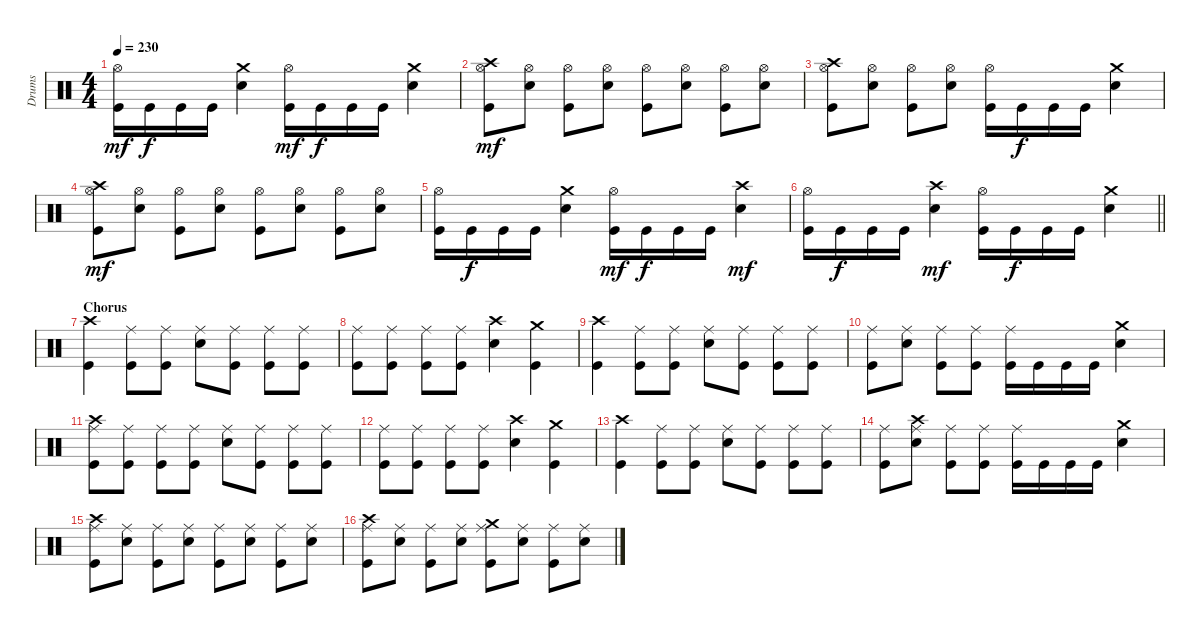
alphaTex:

\track ("Drums" "Drums") {instrument percussion}
\staff {score}
\articulation defaults
\ts (4 4)
\tempo 230
\clef neutral
\ks c
("Hi-Hat (open)" "Kick (hit)").16{dy mf} "Kick (hit)".16{dy f} "Kick (hit)".16 "Kick (hit)".16 ("Crash medium (hit)" "Electric Snare (hit)").4 ("Hi-Hat (open)" "Kick (hit)").16{dy mf} "Kick (hit)".16{dy f} "Kick (hit)".16 "Kick (hit)".16 ("Crash medium (hit)" "Electric Snare (hit)").4 |
("Crash high (hit)" "Hi-Hat (open)" "Kick (hit)").8{dy mf} ("Hi-Hat (open)" "Electric Snare (hit)").8 ("Hi-Hat (open)" "Kick (hit)").8 ("Hi-Hat (open)" "Electric Snare (hit)").8 ("Hi-Hat (open)" "Kick (hit)").8 ("Hi-Hat (open)" "Electric Snare (hit)").8 ("Hi-Hat (open)" "Kick (hit)").8 ("Hi-Hat (open)" "Electric Snare (hit)").8 |
("Crash high (hit)" "Hi-Hat (open)" "Kick (hit)").8 ("Hi-Hat (open)" "Electric Snare (hit)").8 ("Hi-Hat (open)" "Kick (hit)").8 ("Hi-Hat (open)" "Electric Snare (hit)").8 ("Hi-Hat (open)" "Kick (hit)").16 "Kick (hit)".16{dy f} "Kick (hit)".16 "Kick (hit)".16 ("Crash medium (hit)" "Electric Snare (hit)").4 |
("Crash high (hit)" "Hi-Hat (open)" "Kick (hit)").8{dy mf} ("Hi-Hat (open)" "Electric Snare (hit)").8 ("Hi-Hat (open)" "Kick (hit)").8 ("Hi-Hat (open)" "Electric Snare (hit)").8 ("Hi-Hat (open)" "Kick (hit)").8 ("Hi-Hat (open)" "Electric Snare (hit)").8 ("Hi-Hat (open)" "Kick (hit)").8 ("Hi-Hat (open)" "Electric Snare (hit)").8 |
("Hi-Hat (open)" "Kick (hit)").16 "Kick (hit)".16{dy f} "Kick (hit)".16 "Kick (hit)".16 ("Crash medium (hit)" "Electric Snare (hit)").4 ("Hi-Hat (open)" "Kick (hit)").16{dy mf} "Kick (hit)".16{dy f} "Kick (hit)".16 "Kick (hit)".16 ("Crash high (hit)" "Electric Snare (hit)").4{dy mf} |
\barLineRight lightlight
("Hi-Hat (open)" "Kick (hit)").16 "Kick (hit)".16{dy f} "Kick (hit)".16 "Kick (hit)".16 ("Crash high (hit)" "Electric Snare (hit)").4{dy mf} ("Hi-Hat (open)" "Kick (hit)").16 "Kick (hit)".16{dy f} "Kick (hit)".16 "Kick (hit)".16 ("Crash medium (hit)" "Electric Snare (hit)").4 |
\section ("" "Chorus")
("Crash high (hit)" "Kick (hit)").4 ("Ride (middle)" "Kick (hit)").8 ("Ride (middle)" "Kick (hit)").8 ("Ride (middle)" "Electric Snare (hit)").8 ("Ride (middle)" "Kick (hit)").8 ("Ride (middle)" "Kick (hit)").8 ("Ride (middle)" "Kick (hit)").8 |
("Ride (middle)" "Kick (hit)").8 ("Ride (middle)" "Kick (hit)").8 ("Ride (middle)" "Kick (hit)").8 ("Ride (middle)" "Kick (hit)").8 ("Crash high (hit)" "Electric Snare (hit)").4 ("Crash medium (hit)" "Kick (hit)").4 |
("Crash high (hit)" "Kick (hit)").4 ("Ride (middle)" "Kick (hit)").8 ("Ride (middle)" "Kick (hit)").8 ("Ride (middle)" "Electric Snare (hit)").8 ("Ride (middle)" "Kick (hit)").8 ("Ride (middle)" "Kick (hit)").8 ("Ride (middle)" "Kick (hit)").8 |
("Ride (middle)" "Kick (hit)").8 ("Ride (middle)" "Electric Snare (hit)").8 ("Ride (middle)" "Kick (hit)").8 ("Ride (middle)" "Kick (hit)").8 ("Ride (middle)" "Kick (hit)").16 "Kick (hit)".16 "Kick (hit)".16 "Kick (hit)".16 ("Crash medium (hit)" "Electric Snare (hit)").4 |
("Crash high (hit)" "Ride (middle)" "Kick (hit)").8 ("Ride (middle)" "Kick (hit)").8 ("Ride (middle)" "Kick (hit)").8 ("Ride (middle)" "Kick (hit)").8 ("Ride (middle)" "Electric Snare (hit)").8 ("Ride (middle)" "Kick (hit)").8 ("Ride (middle)" "Kick (hit)").8 ("Ride (middle)" "Kick (hit)").8 |
("Ride (middle)" "Kick (hit)").8 ("Ride (middle)" "Kick (hit)").8 ("Ride (middle)" "Kick (hit)").8 ("Ride (middle)" "Kick (hit)").8 ("Crash high (hit)" "Electric Snare (hit)").4 ("Crash medium (hit)" "Kick (hit)").4 |
("Crash high (hit)" "Kick (hit)").4 ("Ride (middle)" "Kick (hit)").8 ("Ride (middle)" "Kick (hit)").8 ("Ride (middle)" "Electric Snare (hit)").8 ("Ride (middle)" "Kick (hit)").8 ("Ride (middle)" "Kick (hit)").8 ("Ride (middle)" "Kick (hit)").8 |
("Ride (middle)" "Kick (hit)").8 ("Crash high (hit)" "Ride (middle)" "Electric Snare (hit)").8 ("Ride (middle)" "Kick (hit)").8 ("Ride (middle)" "Kick (hit)").8 ("Ride (middle)" "Kick (hit)").16 "Kick (hit)".16 "Kick (hit)".16 "Kick (hit)".16 ("Crash medium (hit)" "Electric Snare (hit)").4 |
("Crash high (hit)" "Ride (middle)" "Kick (hit)").8 ("Ride (middle)" "Electric Snare (hit)").8 ("Ride (middle)" "Kick (hit)").8 ("Ride (middle)" "Electric Snare (hit)").8 ("Ride (middle)" "Kick (hit)").8 ("Ride (middle)" "Electric Snare (hit)").8 ("Ride (middle)" "Kick (hit)").8 ("Ride (middle)" "Electric Snare (hit)").8 |
("Crash high (hit)" "Ride (middle)" "Kick (hit)").8 ("Ride (middle)" "Electric Snare (hit)").8 ("Ride (middle)" "Kick (hit)").8 ("Ride (middle)" "Electric Snare (hit)").8 ("Crash medium (hit)" "Ride (middle)" "Kick (hit)").8 ("Ride (middle)" "Electric Snare (hit)").8 ("Ride (middle)" "Kick (hit)").8 ("Ride (middle)" "Electric Snare (hit)").8
